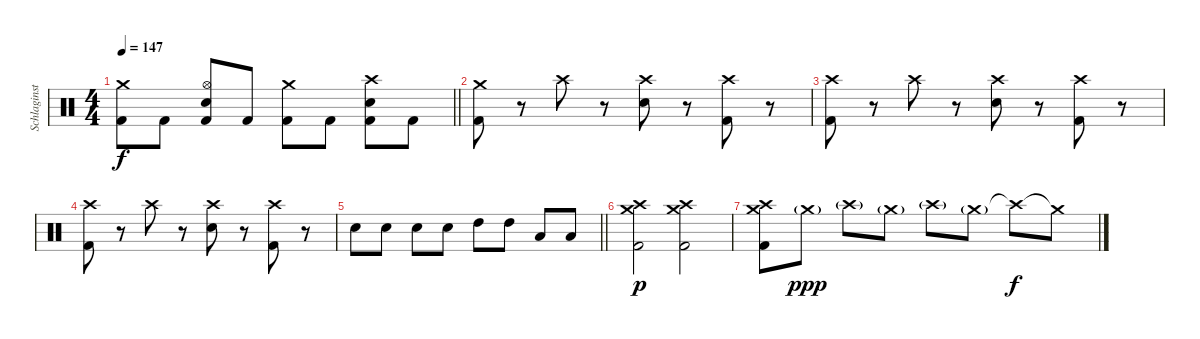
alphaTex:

\track ("Schlaginstrumente - Auswahl" "Schlaginst") {instrument percussion}
\staff {score}
\articulation defaults
\ts (4 4)
\tempo 147
\clef neutral
\barLineRight lightlight
\ks c
("Crash medium (hit)" "Kick (hit) 2").8{dy f} "Kick (hit) 2".8 ("Hi-Hat (open)" "Snare (hit) 2" "Kick (hit) 2").8 "Kick (hit) 2".8 ("Crash medium (hit)" "Kick (hit) 2").8 "Kick (hit) 2".8 ("Crash high (hit)" "Snare (hit) 2" "Kick (hit) 2").8 "Kick (hit) 2".8 |
("Crash medium (hit)" "Kick (hit) 2").8 r.8 "Crash high (hit)".8 r.8 ("Crash high (hit)" "Snare (hit) 2").8 r.8 ("Crash high (hit)" "Kick (hit) 2").8 r.8 |
("Crash high (hit)" "Kick (hit) 2").8 r.8 "Crash high (hit)".8 r.8 ("Crash high (hit)" "Snare (hit) 2").8 r.8 ("Crash high (hit)" "Kick (hit) 2").8 r.8 |
("Crash high (hit)" "Kick (hit) 2").8 r.8 "Crash high (hit)".8 r.8 ("Crash high (hit)" "Snare (hit) 2").8 r.8 ("Crash high (hit)" "Kick (hit) 2").8 r.8 |
\barLineRight lightlight "Snare (hit) 2".8 "Snare (hit) 2".8 "Snare (hit) 2".8 "Snare (hit) 2".8 "High Tom (hit)".8 "High Tom (hit)".8 "Low Tom (hit)".8 "Low Tom (hit)".8
|
("Crash high (hit)" "Crash medium (hit)" "Kick (hit) 2").2{dy p} ("Crash high (hit)" "Crash medium (hit)" "Kick (hit) 2").2 |
("Crash high (hit)" "Crash medium (hit)" "Kick (hit) 2").8 "Crash medium (hit)"{g}.8{dy ppp} "Crash high (hit)"{g}.8 "Crash medium (hit)"{g}.8 "Crash high (hit)"{g}.8 "Crash medium (hit)"{g}.8 "Crash high (hit)"{t}.8{dy f} "Crash medium (hit)"{t}.8
